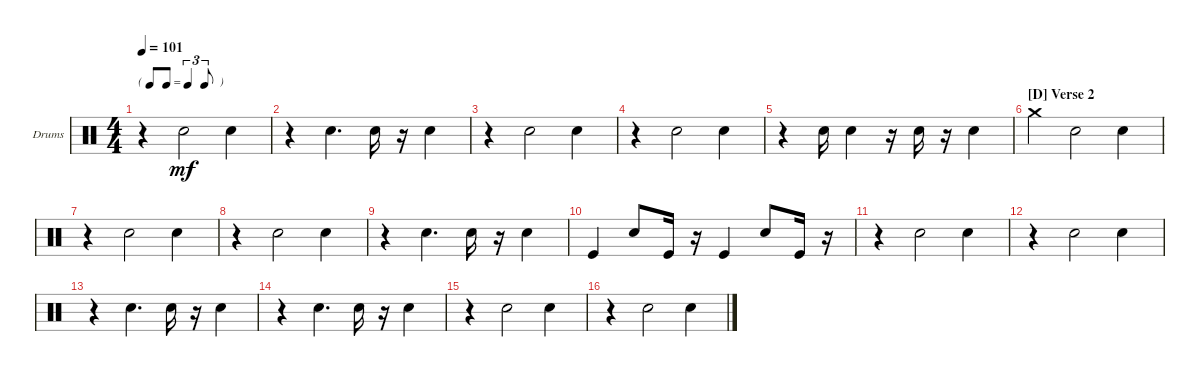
\bracketExtendMode groupsimilarinstruments
\firstSystemTrackNameOrientation horizontal
\otherSystemsTrackNameOrientation horizontal
\track ("Charlie Watts" "Drums") {instrument percussion}
\staff {score}
\articulation defaults
\ts (4 4)
\tf triplet8th
\tempo 101
\clef neutral
\scale
0.333333
\ks c
r.4{dy mf} "Snare (hit) 2".2 "Snare (hit) 2".4 |
\scale
0.333333 r.4 "Snare (hit) 2".4{d} "Snare (hit) 2".16 r.16 "Snare (hit) 2".4 |
\scale
0.333333 r.4 "Snare (hit) 2".2 "Snare (hit) 2".4 |
\scale
0.333333 r.4 "Snare (hit) 2".2 "Snare (hit) 2".4 |
\scale
0.333333 r.4 "Snare (hit) 2".16 "Snare (hit) 2".4 r.16 "Snare (hit) 2".16 r.16 "Snare (hit) 2".4 |
\section ("D" "Verse 2")
\scale
0.333333 "Crash medium (hit)".4 "Snare (hit) 2".2 "Snare (hit) 2".4 |
\scale
0.333333 r.4 "Snare (hit) 2".2 "Snare (hit) 2".4 |
\scale
0.333333 r.4 "Snare (hit) 2".2 "Snare (hit) 2".4 |
\scale
0.333333 r.4 "Snare (hit) 2".4{d} "Snare (hit) 2".16 r.16 "Snare (hit) 2".4 |
\scale
0.333333 "Kick (hit)".4 "Snare (hit) 2".8 "Kick (hit)".16 r.16 "Kick (hit)".4 "Snare (hit) 2".8 "Kick (hit)".16 r.16 |
\scale
0.333333 r.4 "Snare (hit) 2".2 "Snare (hit) 2".4 |
\scale
0.333333 r.4 "Snare (hit) 2".2 "Snare (hit) 2".4 |
\scale
0.333333 r.4 "Snare (hit) 2".4{d} "Snare (hit) 2".16 r.16 "Snare (hit) 2".4 |
\scale
0.333333 r.4 "Snare (hit) 2".4{d} "Snare (hit) 2".16 r.16 "Snare (hit) 2".4 |
\scale
0.333333 r.4 "Snare (hit) 2".2 "Snare (hit) 2".4 |
\scale
0.333333 r.4 "Snare (hit) 2".2 "Snare (hit) 2".4
